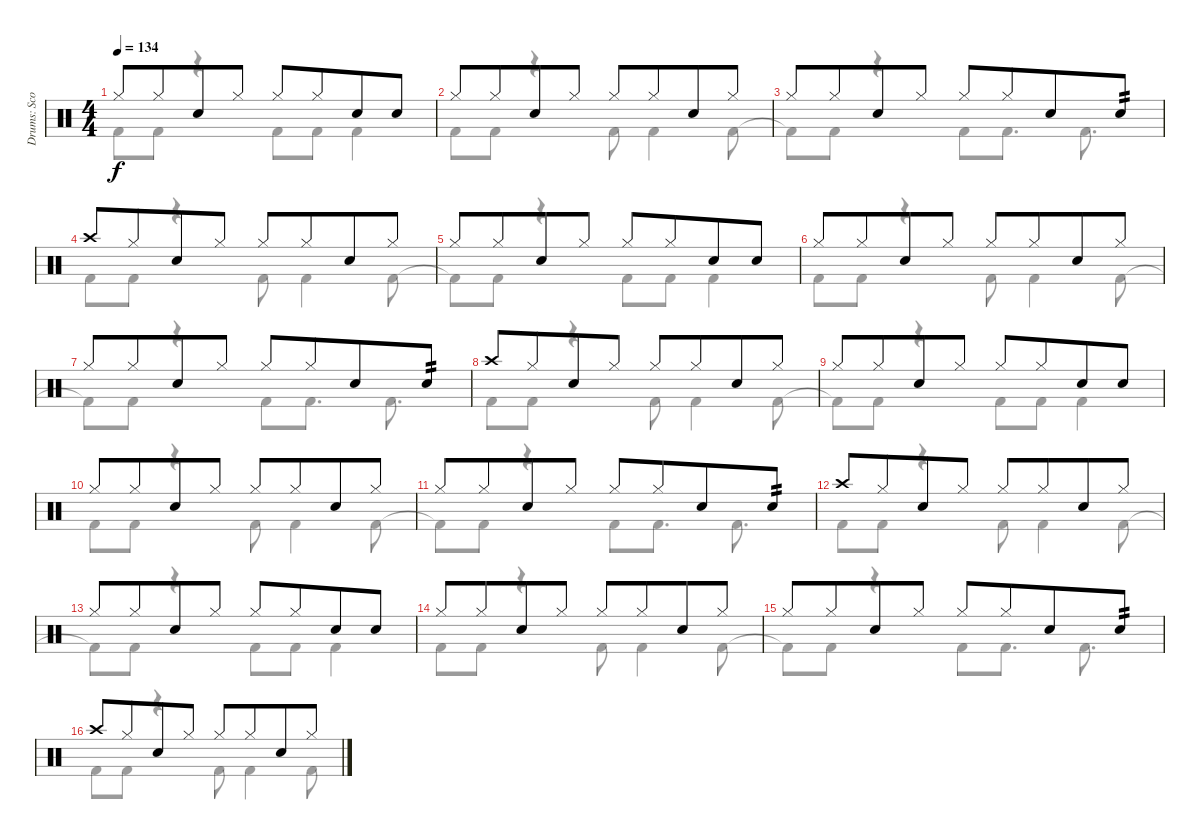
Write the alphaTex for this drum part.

\track ("Drums: Scott" "Drums: Sco") {instrument percussion}
\staff {score}
\articulation defaults
\voice
\ts (4 4)
\tempo 134
\clef neutral
\ks c "Hi-Hat (closed)".8{dy f} "Hi-Hat (closed)".8{beam merge} "Snare (hit) 2".8 "Hi-Hat (closed)".8 "Hi-Hat (closed)".8 "Hi-Hat (closed)".8{beam merge} "Snare (hit) 2".8 "Snare (hit) 2".8
|
"Hi-Hat (closed)".8 "Hi-Hat (closed)".8{beam merge} "Snare (hit) 2".8 "Hi-Hat (closed)".8 "Hi-Hat (closed)".8 "Hi-Hat (closed)".8{beam merge} "Snare (hit) 2".8 "Hi-Hat (closed)".8 |
"Hi-Hat (closed)".8 "Hi-Hat (closed)".8{beam merge} "Snare (hit) 2".8 "Hi-Hat (closed)".8 "Hi-Hat (closed)".8 "Hi-Hat (closed)".8{beam merge} "Snare (hit) 2".8 "Snare (hit) 2".8{tp 2} |
"Crash high (hit)".8 "Hi-Hat (closed)".8{beam merge} "Snare (hit) 2".8 "Hi-Hat (closed)".8 "Hi-Hat (closed)".8 "Hi-Hat (closed)".8{beam merge} "Snare (hit) 2".8 "Hi-Hat (closed)".8 |
"Hi-Hat (closed)".8 "Hi-Hat (closed)".8{beam merge} "Snare (hit) 2".8 "Hi-Hat (closed)".8 "Hi-Hat (closed)".8 "Hi-Hat (closed)".8{beam merge} "Snare (hit) 2".8 "Snare (hit) 2".8 |
"Hi-Hat (closed)".8 "Hi-Hat (closed)".8{beam merge} "Snare (hit) 2".8 "Hi-Hat (closed)".8 "Hi-Hat (closed)".8 "Hi-Hat (closed)".8{beam merge} "Snare (hit) 2".8 "Hi-Hat (closed)".8 |
"Hi-Hat (closed)".8 "Hi-Hat (closed)".8{beam merge} "Snare (hit) 2".8 "Hi-Hat (closed)".8 "Hi-Hat (closed)".8 "Hi-Hat (closed)".8{beam merge} "Snare (hit) 2".8 "Snare (hit) 2".8{tp 2} |
"Crash high (hit)".8 "Hi-Hat (closed)".8{beam merge} "Snare (hit) 2".8 "Hi-Hat (closed)".8 "Hi-Hat (closed)".8 "Hi-Hat (closed)".8{beam merge} "Snare (hit) 2".8 "Hi-Hat (closed)".8 |
"Hi-Hat (closed)".8 "Hi-Hat (closed)".8{beam merge} "Snare (hit) 2".8 "Hi-Hat (closed)".8 "Hi-Hat (closed)".8 "Hi-Hat (closed)".8{beam merge} "Snare (hit) 2".8 "Snare (hit) 2".8 |
"Hi-Hat (closed)".8 "Hi-Hat (closed)".8{beam merge} "Snare (hit) 2".8 "Hi-Hat (closed)".8 "Hi-Hat (closed)".8 "Hi-Hat (closed)".8{beam merge} "Snare (hit) 2".8 "Hi-Hat (closed)".8 |
"Hi-Hat (closed)".8 "Hi-Hat (closed)".8{beam merge} "Snare (hit) 2".8 "Hi-Hat (closed)".8 "Hi-Hat (closed)".8 "Hi-Hat (closed)".8{beam merge} "Snare (hit) 2".8 "Snare (hit) 2".8{tp 2} |
"Crash high (hit)".8 "Hi-Hat (closed)".8{beam merge} "Snare (hit) 2".8 "Hi-Hat (closed)".8 "Hi-Hat (closed)".8 "Hi-Hat (closed)".8{beam merge} "Snare (hit) 2".8 "Hi-Hat (closed)".8 |
"Hi-Hat (closed)".8 "Hi-Hat (closed)".8{beam merge} "Snare (hit) 2".8 "Hi-Hat (closed)".8 "Hi-Hat (closed)".8 "Hi-Hat (closed)".8{beam merge} "Snare (hit) 2".8 "Snare (hit) 2".8 |
"Hi-Hat (closed)".8 "Hi-Hat (closed)".8{beam merge} "Snare (hit) 2".8 "Hi-Hat (closed)".8 "Hi-Hat (closed)".8 "Hi-Hat (closed)".8{beam merge} "Snare (hit) 2".8 "Hi-Hat (closed)".8 |
"Hi-Hat (closed)".8 "Hi-Hat (closed)".8{beam merge} "Snare (hit) 2".8 "Hi-Hat (closed)".8 "Hi-Hat (closed)".8 "Hi-Hat (closed)".8{beam merge} "Snare (hit) 2".8 "Snare (hit) 2".8{tp 2} |
"Crash high (hit)".8 "Hi-Hat (closed)".8{beam merge} "Snare (hit) 2".8 "Hi-Hat (closed)".8 "Hi-Hat (closed)".8 "Hi-Hat (closed)".8{beam merge} "Snare (hit) 2".8 "Hi-Hat (closed)".8
\voice
\clef neutral
\ottava regular
\simile none
\ks c "Kick (hit) 2"{t}.8{dy f} "Kick (hit) 2".8
r.4 "Kick (hit) 2".8 "Kick (hit) 2".8 "Kick (hit) 2".4 |
"Kick (hit) 2".8 "Kick (hit) 2".8 r.4 "Kick (hit) 2".8 "Kick (hit) 2".4 "Kick (hit) 2".8 |
"Kick (hit) 2"{t}.8 "Kick (hit) 2".8 r.4 "Kick (hit) 2".8 "Kick (hit) 2".8{d} "Kick (hit) 2".8{d} |
"Kick (hit) 2".8 "Kick (hit) 2".8 r.4 "Kick (hit) 2".8 "Kick (hit) 2".4 "Kick (hit) 2".8 |
"Kick (hit) 2"{t}.8 "Kick (hit) 2".8 r.4 "Kick (hit) 2".8 "Kick (hit) 2".8 "Kick (hit) 2".4 |
"Kick (hit) 2".8 "Kick (hit) 2".8 r.4 "Kick (hit) 2".8 "Kick (hit) 2".4 "Kick (hit) 2".8 |
"Kick (hit) 2"{t}.8 "Kick (hit) 2".8 r.4 "Kick (hit) 2".8 "Kick (hit) 2".8{d} "Kick (hit) 2".8{d} |
"Kick (hit) 2".8 "Kick (hit) 2".8 r.4 "Kick (hit) 2".8 "Kick (hit) 2".4 "Kick (hit) 2".8 |
"Kick (hit) 2"{t}.8 "Kick (hit) 2".8 r.4 "Kick (hit) 2".8 "Kick (hit) 2".8 "Kick (hit) 2".4 |
"Kick (hit) 2".8 "Kick (hit) 2".8 r.4 "Kick (hit) 2".8 "Kick (hit) 2".4 "Kick (hit) 2".8 |
"Kick (hit) 2"{t}.8 "Kick (hit) 2".8 r.4 "Kick (hit) 2".8 "Kick (hit) 2".8{d} "Kick (hit) 2".8{d} |
"Kick (hit) 2".8 "Kick (hit) 2".8 r.4 "Kick (hit) 2".8 "Kick (hit) 2".4 "Kick (hit) 2".8 |
"Kick (hit) 2"{t}.8 "Kick (hit) 2".8 r.4 "Kick (hit) 2".8 "Kick (hit) 2".8 "Kick (hit) 2".4 |
"Kick (hit) 2".8 "Kick (hit) 2".8 r.4 "Kick (hit) 2".8 "Kick (hit) 2".4 "Kick (hit) 2".8 |
"Kick (hit) 2"{t}.8 "Kick (hit) 2".8 r.4 "Kick (hit) 2".8 "Kick (hit) 2".8{d} "Kick (hit) 2".8{d} |
"Kick (hit) 2".8 "Kick (hit) 2".8 r.4 "Kick (hit) 2".8 "Kick (hit) 2".4 "Kick (hit) 2".8
